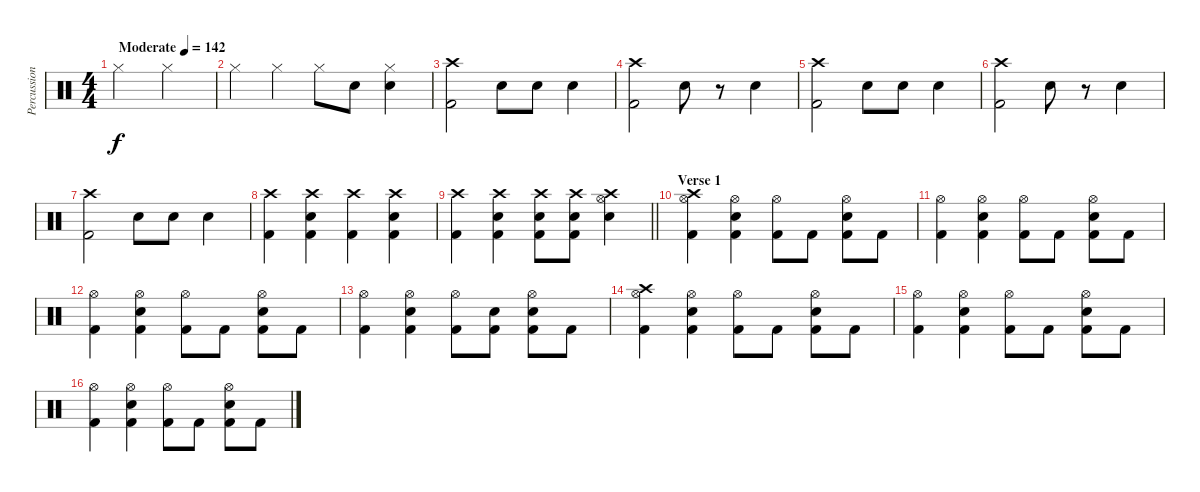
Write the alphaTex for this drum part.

\track ("Percussion" "Percussion") {instrument percussion}
\staff {score}
\articulation defaults
\ts (4 4)
\tempo (142 "Moderate")
\clef neutral
\ks c "Hi-Hat (closed)".2{dy f} "Hi-Hat (closed)".2
|
"Hi-Hat (closed)".4 "Hi-Hat (closed)".4 "Hi-Hat (closed)".8 "Electric Snare (hit)".8 ("Hi-Hat (closed)" "Electric Snare (hit)").4 |
("Crash high (hit)" "Kick (hit) 2").2 "Snare (hit)".8 "Electric Snare (hit)".8 "Electric Snare (hit)".4 |
("Crash high (hit)" "Kick (hit) 2").2 "Snare (hit)".8 r.8 "Electric Snare (hit)".4 |
("Crash high (hit)" "Kick (hit) 2").2 "Snare (hit)".8 "Electric Snare (hit)".8 "Electric Snare (hit)".4 |
("Crash high (hit)" "Kick (hit) 2").2 "Snare (hit)".8 r.8 "Electric Snare (hit)".4 |
("Crash high (hit)" "Kick (hit) 2").2 "Snare (hit)".8 "Electric Snare (hit)".8 "Electric Snare (hit)".4 |
("Crash high (hit)" "Kick (hit) 2").4 ("Crash high (hit)" "Kick (hit) 2" "Snare (hit) 2").4 ("Crash high (hit)" "Kick (hit) 2").4 ("Crash high (hit)" "Kick (hit) 2" "Snare (hit) 2").4 |
\barLineRight lightlight
("Crash high (hit)" "Kick (hit) 2").4 ("Crash high (hit)" "Kick (hit) 2" "Snare (hit) 2").4 ("Crash high (hit)" "Kick (hit) 2" "Snare (hit) 2").8 ("Crash high (hit)" "Kick (hit) 2" "Snare (hit) 2").8 ("Crash high (hit)" "Hi-Hat (open)" "Snare (hit) 2").4 |
\section ("" "Verse 1")
("Crash high (hit)" "Hi-Hat (open)" "Kick (hit) 2").4 ("Hi-Hat (open)" "Snare (hit) 2" "Kick (hit) 2").4 ("Hi-Hat (open)" "Kick (hit) 2").8 "Kick (hit) 2".8 ("Hi-Hat (open)" "Snare (hit) 2" "Kick (hit) 2").8 "Kick (hit) 2".8 |
("Hi-Hat (open)" "Kick (hit) 2").4 ("Hi-Hat (open)" "Snare (hit) 2" "Kick (hit) 2").4 ("Hi-Hat (open)" "Kick (hit) 2").8 "Kick (hit) 2".8 ("Hi-Hat (open)" "Snare (hit) 2" "Kick (hit) 2").8 "Kick (hit) 2".8 |
("Hi-Hat (open)" "Kick (hit) 2").4 ("Hi-Hat (open)" "Snare (hit) 2" "Kick (hit) 2").4 ("Hi-Hat (open)" "Kick (hit) 2").8 "Kick (hit) 2".8 ("Hi-Hat (open)" "Snare (hit) 2" "Kick (hit) 2").8 "Kick (hit) 2".8 |
("Hi-Hat (open)" "Kick (hit) 2").4 ("Hi-Hat (open)" "Snare (hit) 2" "Kick (hit) 2").4 ("Hi-Hat (open)" "Kick (hit) 2").8 ("Snare (hit) 2" "Kick (hit) 2").8 ("Hi-Hat (open)" "Snare (hit) 2" "Kick (hit) 2").8 "Kick (hit) 2".8 |
("Crash high (hit)" "Hi-Hat (open)" "Kick (hit) 2").4 ("Hi-Hat (open)" "Snare (hit) 2" "Kick (hit) 2").4 ("Hi-Hat (open)" "Kick (hit) 2").8 "Kick (hit) 2".8 ("Hi-Hat (open)" "Snare (hit) 2" "Kick (hit) 2").8 "Kick (hit) 2".8 |
("Hi-Hat (open)" "Kick (hit) 2").4 ("Hi-Hat (open)" "Snare (hit) 2" "Kick (hit) 2").4 ("Hi-Hat (open)" "Kick (hit) 2").8 "Kick (hit) 2".8 ("Hi-Hat (open)" "Snare (hit) 2" "Kick (hit) 2").8 "Kick (hit) 2".8 |
("Hi-Hat (open)" "Kick (hit) 2").4 ("Hi-Hat (open)" "Snare (hit) 2" "Kick (hit) 2").4 ("Hi-Hat (open)" "Kick (hit) 2").8 "Kick (hit) 2".8 ("Hi-Hat (open)" "Snare (hit) 2" "Kick (hit) 2").8 "Kick (hit) 2".8
